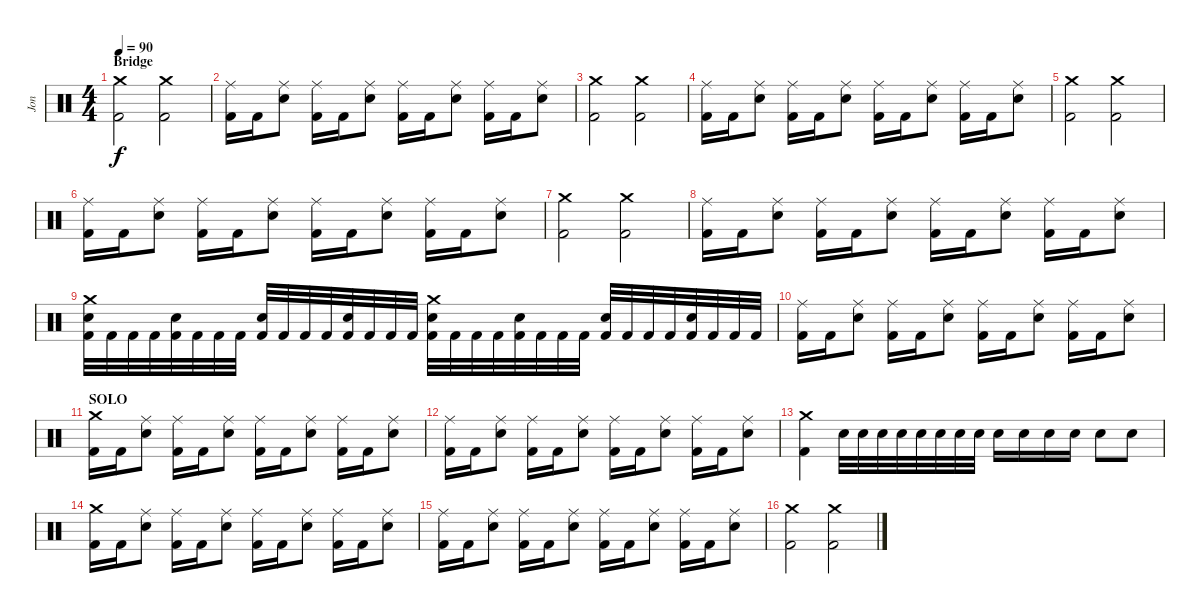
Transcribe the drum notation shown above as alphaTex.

\track ("Jon" "Jon") {instrument percussion}
\staff {score}
\articulation defaults
\ts (4 4)
\section ("" "Bridge")
\tempo 90
\clef neutral
\ks c
("Crash medium (hit)" "Kick (hit) 2").2{dy f} ("Crash medium (hit)" "Kick (hit) 2").2 |
("Ride (middle)" "Kick (hit) 2").16 "Kick (hit) 2".16 ("Ride (middle)" "Snare (hit) 2").8 ("Ride (middle)" "Kick (hit) 2").16 "Kick (hit) 2".16 ("Ride (middle)" "Snare (hit) 2").8 ("Ride (middle)" "Kick (hit) 2").16 "Kick (hit) 2".16 ("Ride (middle)" "Snare (hit) 2").8 ("Ride (middle)" "Kick (hit) 2").16 "Kick (hit) 2".16 ("Ride (middle)" "Snare (hit) 2").8 |
("Crash medium (hit)" "Kick (hit) 2").2 ("Crash medium (hit)" "Kick (hit) 2").2 |
("Ride (middle)" "Kick (hit) 2").16 "Kick (hit) 2".16 ("Ride (middle)" "Snare (hit) 2").8 ("Ride (middle)" "Kick (hit) 2").16 "Kick (hit) 2".16 ("Ride (middle)" "Snare (hit) 2").8 ("Ride (middle)" "Kick (hit) 2").16 "Kick (hit) 2".16 ("Ride (middle)" "Snare (hit) 2").8 ("Ride (middle)" "Kick (hit) 2").16 "Kick (hit) 2".16 ("Ride (middle)" "Snare (hit) 2").8 |
("Crash medium (hit)" "Kick (hit) 2").2 ("Crash medium (hit)" "Kick (hit) 2").2 |
("Ride (middle)" "Kick (hit) 2").16 "Kick (hit) 2".16 ("Ride (middle)" "Snare (hit) 2").8 ("Ride (middle)" "Kick (hit) 2").16 "Kick (hit) 2".16 ("Ride (middle)" "Snare (hit) 2").8 ("Ride (middle)" "Kick (hit) 2").16 "Kick (hit) 2".16 ("Ride (middle)" "Snare (hit) 2").8 ("Ride (middle)" "Kick (hit) 2").16 "Kick (hit) 2".16 ("Ride (middle)" "Snare (hit) 2").8 |
("Crash medium (hit)" "Kick (hit) 2").2 ("Crash medium (hit)" "Kick (hit) 2").2 |
("Ride (middle)" "Kick (hit) 2").16 "Kick (hit) 2".16 ("Ride (middle)" "Snare (hit) 2").8 ("Ride (middle)" "Kick (hit) 2").16 "Kick (hit) 2".16 ("Ride (middle)" "Snare (hit) 2").8 ("Ride (middle)" "Kick (hit) 2").16 "Kick (hit) 2".16 ("Ride (middle)" "Snare (hit) 2").8 ("Ride (middle)" "Kick (hit) 2").16 "Kick (hit) 2".16 ("Ride (middle)" "Snare (hit) 2").8 |
("Crash medium (hit)" "Snare (hit) 2" "Kick (hit) 2").32 "Kick (hit) 2".32 "Kick (hit) 2".32 "Kick (hit) 2".32 ("Snare (hit) 2" "Kick (hit) 2").32 "Kick (hit) 2".32 "Kick (hit) 2".32 "Kick (hit) 2".32 ("Snare (hit) 2" "Kick (hit) 2").32 "Kick (hit) 2".32 "Kick (hit) 2".32 "Kick (hit) 2".32 ("Snare (hit) 2" "Kick (hit) 2").32 "Kick (hit) 2".32 "Kick (hit) 2".32 "Kick (hit) 2".32 ("Crash medium (hit)" "Snare (hit) 2" "Kick (hit) 2").32 "Kick (hit) 2".32 "Kick (hit) 2".32 "Kick (hit) 2".32 ("Snare (hit) 2" "Kick (hit) 2").32 "Kick (hit) 2".32 "Kick (hit) 2".32 "Kick (hit) 2".32 ("Snare (hit) 2" "Kick (hit) 2").32 "Kick (hit) 2".32 "Kick (hit) 2".32 "Kick (hit) 2".32 ("Snare (hit) 2" "Kick (hit) 2").32 "Kick (hit) 2".32 "Kick (hit) 2".32 "Kick (hit) 2".32 |
("Ride (middle)" "Kick (hit) 2").16 "Kick (hit) 2".16 ("Ride (middle)" "Snare (hit) 2").8 ("Ride (middle)" "Kick (hit) 2").16 "Kick (hit) 2".16 ("Ride (middle)" "Snare (hit) 2").8 ("Ride (middle)" "Kick (hit) 2").16 "Kick (hit) 2".16 ("Ride (middle)" "Snare (hit) 2").8 ("Ride (middle)" "Kick (hit) 2").16 "Kick (hit) 2".16 ("Ride (middle)" "Snare (hit) 2").8 |
\section ("" "SOLO")
("Crash medium (hit)" "Kick (hit) 2").16 "Kick (hit) 2".16 ("Ride (middle)" "Snare (hit) 2").8 ("Ride (middle)" "Kick (hit) 2").16 "Kick (hit) 2".16 ("Ride (middle)" "Snare (hit) 2").8 ("Ride (middle)" "Kick (hit) 2").16 "Kick (hit) 2".16 ("Ride (middle)" "Snare (hit) 2").8 ("Ride (middle)" "Kick (hit) 2").16 "Kick (hit) 2".16 ("Ride (middle)" "Snare (hit) 2").8 |
("Ride (middle)" "Kick (hit) 2").16 "Kick (hit) 2".16 ("Ride (middle)" "Snare (hit) 2").8 ("Ride (middle)" "Kick (hit) 2").16 "Kick (hit) 2".16 ("Ride (middle)" "Snare (hit) 2").8 ("Ride (middle)" "Kick (hit) 2").16 "Kick (hit) 2".16 ("Ride (middle)" "Snare (hit) 2").8 ("Ride (middle)" "Kick (hit) 2").16 "Kick (hit) 2".16 ("Ride (middle)" "Snare (hit) 2").8 |
("Crash medium (hit)" "Kick (hit) 2").4 "Snare (hit) 2".32 "Snare (hit) 2".32 "Snare (hit) 2".32 "Snare (hit) 2".32 "Snare (hit) 2".32 "Snare (hit) 2".32 "Snare (hit) 2".32 "Snare (hit) 2".32 "Snare (hit) 2".16 "Snare (hit) 2".16 "Snare (hit) 2".16 "Snare (hit) 2".16 "Snare (hit) 2".8 "Snare (hit) 2".8 |
("Crash medium (hit)" "Kick (hit) 2").16 "Kick (hit) 2".16 ("Ride (middle)" "Snare (hit) 2").8 ("Ride (middle)" "Kick (hit) 2").16 "Kick (hit) 2".16 ("Ride (middle)" "Snare (hit) 2").8 ("Ride (middle)" "Kick (hit) 2").16 "Kick (hit) 2".16 ("Ride (middle)" "Snare (hit) 2").8 ("Ride (middle)" "Kick (hit) 2").16 "Kick (hit) 2".16 ("Ride (middle)" "Snare (hit) 2").8 |
("Ride (middle)" "Kick (hit) 2").16 "Kick (hit) 2".16 ("Ride (middle)" "Snare (hit) 2").8 ("Ride (middle)" "Kick (hit) 2").16 "Kick (hit) 2".16 ("Ride (middle)" "Snare (hit) 2").8 ("Ride (middle)" "Kick (hit) 2").16 "Kick (hit) 2".16 ("Ride (middle)" "Snare (hit) 2").8 ("Ride (middle)" "Kick (hit) 2").16 "Kick (hit) 2".16 ("Ride (middle)" "Snare (hit) 2").8 |
("Crash medium (hit)" "Kick (hit) 2").2 ("Crash medium (hit)" "Kick (hit) 2").2
